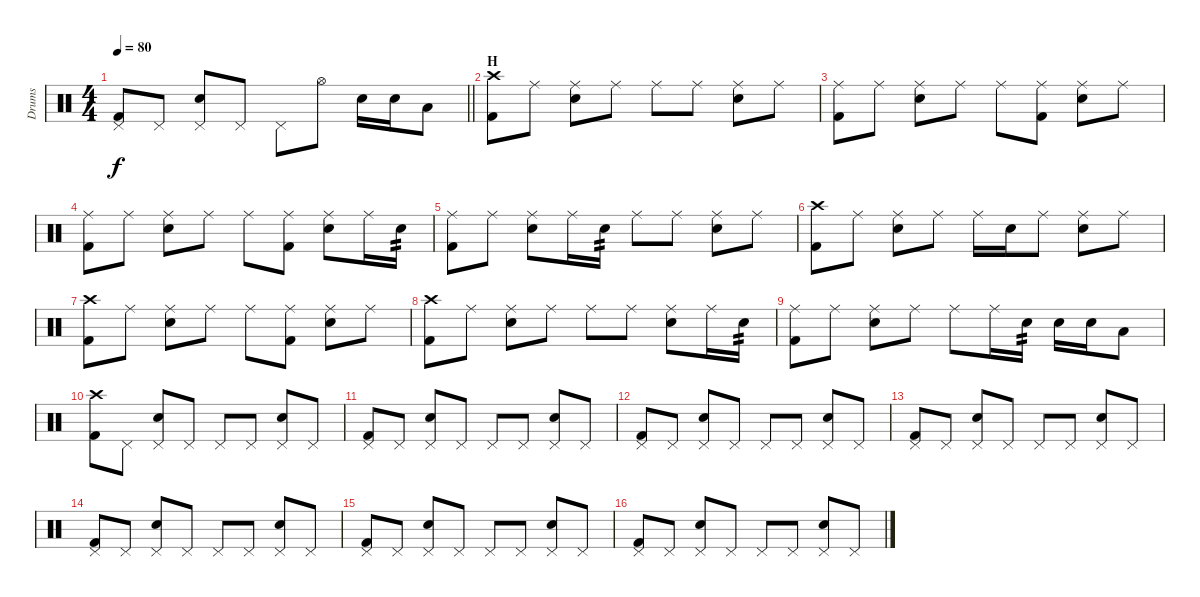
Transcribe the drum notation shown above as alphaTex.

\track ("Drums" "Drums") {instrument percussion}
\staff {score}
\articulation defaults
\ts (4 4)
\tempo 80
\clef neutral
\barLineRight lightlight
\ks c
("Pedal Hi-Hat (hit)" "Kick (hit) 2").8{dy f} "Pedal Hi-Hat (hit)".8 ("Pedal Hi-Hat (hit)" "Snare (hit) 2").8 "Pedal Hi-Hat (hit)".8 "Pedal Hi-Hat (hit)".8 "Hi-Hat (open)".8 "Snare (hit) 2".16 "Snare (hit) 2".16 "Low Tom (hit)".8 |
\section ("" "H")
("Crash high (hit)" "Kick (hit) 2").8 "Ride (middle)".8 ("Ride (middle)" "Snare (hit) 2").8 "Ride (middle)".8 "Ride (middle)".8 "Ride (middle)".8 ("Ride (middle)" "Snare (hit) 2").8 "Ride (middle)".8 |
("Ride (middle)" "Kick (hit) 2").8 "Ride (middle)".8 ("Ride (middle)" "Snare (hit) 2").8 "Ride (middle)".8 "Ride (middle)".8 ("Ride (middle)" "Kick (hit) 2").8 ("Ride (middle)" "Snare (hit) 2").8 "Ride (middle)".8 |
("Ride (middle)" "Kick (hit) 2").8 "Ride (middle)".8 ("Ride (middle)" "Snare (hit) 2").8 "Ride (middle)".8 "Ride (middle)".8 ("Ride (middle)" "Kick (hit) 2").8 ("Ride (middle)" "Snare (hit) 2").8 "Ride (middle)".16 "Snare (hit) 2".16{tp 2} |
("Ride (middle)" "Kick (hit) 2").8 "Ride (middle)".8 ("Ride (middle)" "Snare (hit) 2").8 "Ride (middle)".16 "Snare (hit) 2".16{tp 2} "Ride (middle)".8 "Ride (middle)".8 ("Ride (middle)" "Snare (hit) 2").8 "Ride (middle)".8 |
("Crash high (hit)" "Kick (hit) 2").8 "Ride (middle)".8 ("Ride (middle)" "Snare (hit) 2").8 "Ride (middle)".8 "Ride (middle)".16 "Snare (hit) 2".16 "Ride (middle)".8 ("Ride (middle)" "Snare (hit) 2").8 "Ride (middle)".8 |
("Crash high (hit)" "Kick (hit) 2").8 "Ride (middle)".8 ("Ride (middle)" "Snare (hit) 2").8 "Ride (middle)".8 "Ride (middle)".8 ("Ride (middle)" "Kick (hit) 2").8 ("Ride (middle)" "Snare (hit) 2").8 "Ride (middle)".8 |
("Crash high (hit)" "Kick (hit) 2").8 "Ride (middle)".8 ("Ride (middle)" "Snare (hit) 2").8 "Ride (middle)".8 "Ride (middle)".8 "Ride (middle)".8 ("Ride (middle)" "Snare (hit) 2").8 "Ride (middle)".16 "Snare (hit) 2".16{tp 2} |
("Ride (middle)" "Kick (hit) 2").8 "Ride (middle)".8 ("Ride (middle)" "Snare (hit) 2").8 "Ride (middle)".8 "Ride (middle)".8 "Ride (middle)".16 "Snare (hit) 2".16{tp 2} "Snare (hit) 2".16 "Snare (hit) 2".16 "Low Tom (hit)".8 |
("Crash high (hit)" "Kick (hit) 2").8 "Pedal Hi-Hat (hit)".8 ("Pedal Hi-Hat (hit)" "Snare (hit) 2").8 "Pedal Hi-Hat (hit)".8 "Pedal Hi-Hat (hit)".8 "Pedal Hi-Hat (hit)".8 ("Pedal Hi-Hat (hit)" "Snare (hit) 2").8 "Pedal Hi-Hat (hit)".8 |
("Pedal Hi-Hat (hit)" "Kick (hit) 2").8 "Pedal Hi-Hat (hit)".8 ("Pedal Hi-Hat (hit)" "Snare (hit) 2").8 "Pedal Hi-Hat (hit)".8 "Pedal Hi-Hat (hit)".8 "Pedal Hi-Hat (hit)".8 ("Pedal Hi-Hat (hit)" "Snare (hit) 2").8 "Pedal Hi-Hat (hit)".8 |
("Pedal Hi-Hat (hit)" "Kick (hit) 2").8 "Pedal Hi-Hat (hit)".8 ("Pedal Hi-Hat (hit)" "Snare (hit) 2").8 "Pedal Hi-Hat (hit)".8 "Pedal Hi-Hat (hit)".8 "Pedal Hi-Hat (hit)".8 ("Pedal Hi-Hat (hit)" "Snare (hit) 2").8 "Pedal Hi-Hat (hit)".8 |
("Pedal Hi-Hat (hit)" "Kick (hit) 2").8 "Pedal Hi-Hat (hit)".8 ("Pedal Hi-Hat (hit)" "Snare (hit) 2").8 "Pedal Hi-Hat (hit)".8 "Pedal Hi-Hat (hit)".8 "Pedal Hi-Hat (hit)".8 ("Pedal Hi-Hat (hit)" "Snare (hit) 2").8 "Pedal Hi-Hat (hit)".8 |
("Pedal Hi-Hat (hit)" "Kick (hit) 2").8 "Pedal Hi-Hat (hit)".8 ("Pedal Hi-Hat (hit)" "Snare (hit) 2").8 "Pedal Hi-Hat (hit)".8 "Pedal Hi-Hat (hit)".8 "Pedal Hi-Hat (hit)".8 ("Pedal Hi-Hat (hit)" "Snare (hit) 2").8 "Pedal Hi-Hat (hit)".8 |
("Pedal Hi-Hat (hit)" "Kick (hit) 2").8 "Pedal Hi-Hat (hit)".8 ("Pedal Hi-Hat (hit)" "Snare (hit) 2").8 "Pedal Hi-Hat (hit)".8 "Pedal Hi-Hat (hit)".8 "Pedal Hi-Hat (hit)".8 ("Pedal Hi-Hat (hit)" "Snare (hit) 2").8 "Pedal Hi-Hat (hit)".8 |
("Pedal Hi-Hat (hit)" "Kick (hit) 2").8 "Pedal Hi-Hat (hit)".8 ("Pedal Hi-Hat (hit)" "Snare (hit) 2").8 "Pedal Hi-Hat (hit)".8 "Pedal Hi-Hat (hit)".8 "Pedal Hi-Hat (hit)".8 ("Pedal Hi-Hat (hit)" "Snare (hit) 2").8 "Pedal Hi-Hat (hit)".8
